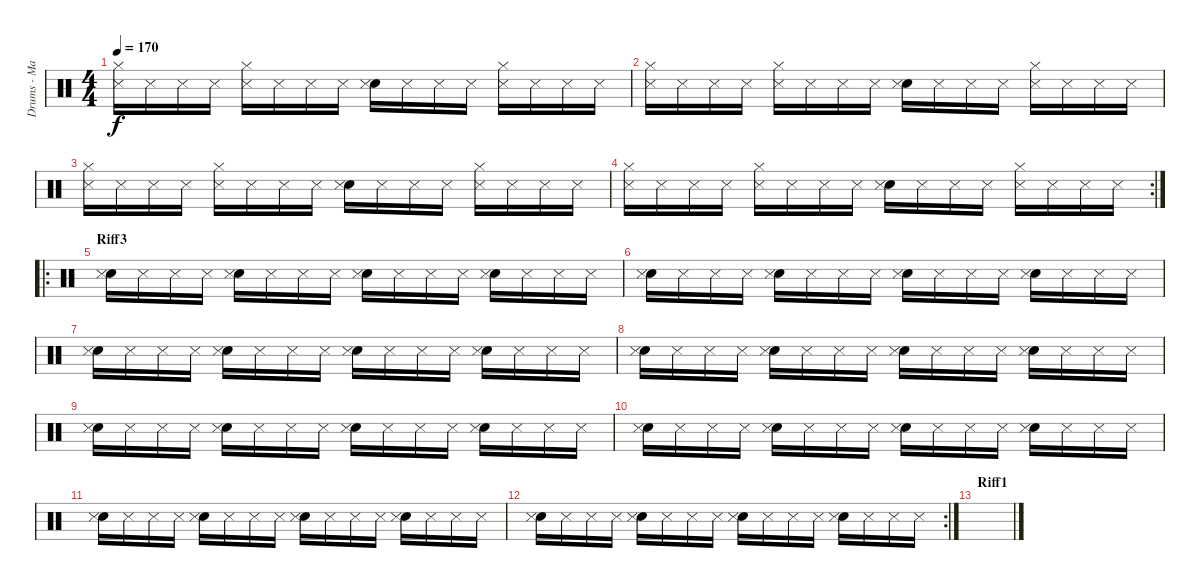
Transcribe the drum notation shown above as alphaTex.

\track ("Drums - Mattias Grahn" "Drums - Ma") {instrument percussion}
\staff {score}
\articulation defaults
\ts (4 4)
\tempo 170
\clef neutral
\ks c
("Hi-Hat (closed)" "Snare (side stick) 3").16{dy f} "Snare (side stick) 3".16 "Snare (side stick) 3".16 "Snare (side stick) 3".16 ("Hi-Hat (closed)" "Snare (side stick) 3").16 "Snare (side stick) 3".16 "Snare (side stick) 3".16 "Snare (side stick) 3".16 ("Electric Snare (hit)" "Snare (side stick) 3").16 "Snare (side stick) 3".16 "Snare (side stick) 3".16 "Snare (side stick) 3".16 ("Hi-Hat (closed)" "Snare (side stick) 3").16 "Snare (side stick) 3".16 "Snare (side stick) 3".16 "Snare (side stick) 3".16 |
("Hi-Hat (closed)" "Snare (side stick) 3").16 "Snare (side stick) 3".16 "Snare (side stick) 3".16 "Snare (side stick) 3".16 ("Hi-Hat (closed)" "Snare (side stick) 3").16 "Snare (side stick) 3".16 "Snare (side stick) 3".16 "Snare (side stick) 3".16 ("Electric Snare (hit)" "Snare (side stick) 3").16 "Snare (side stick) 3".16 "Snare (side stick) 3".16 "Snare (side stick) 3".16 ("Hi-Hat (closed)" "Snare (side stick) 3").16 "Snare (side stick) 3".16 "Snare (side stick) 3".16 "Snare (side stick) 3".16 |
("Hi-Hat (closed)" "Snare (side stick) 3").16 "Snare (side stick) 3".16 "Snare (side stick) 3".16 "Snare (side stick) 3".16 ("Hi-Hat (closed)" "Snare (side stick) 3").16 "Snare (side stick) 3".16 "Snare (side stick) 3".16 "Snare (side stick) 3".16 ("Electric Snare (hit)" "Snare (side stick) 3").16 "Snare (side stick) 3".16 "Snare (side stick) 3".16 "Snare (side stick) 3".16 ("Hi-Hat (closed)" "Snare (side stick) 3").16 "Snare (side stick) 3".16 "Snare (side stick) 3".16 "Snare (side stick) 3".16 |
\rc 2
("Hi-Hat (closed)" "Snare (side stick) 3").16 "Snare (side stick) 3".16 "Snare (side stick) 3".16 "Snare (side stick) 3".16 ("Hi-Hat (closed)" "Snare (side stick) 3").16 "Snare (side stick) 3".16 "Snare (side stick) 3".16 "Snare (side stick) 3".16 ("Electric Snare (hit)" "Snare (side stick) 3").16 "Snare (side stick) 3".16 "Snare (side stick) 3".16 "Snare (side stick) 3".16 ("Hi-Hat (closed)" "Snare (side stick) 3").16 "Snare (side stick) 3".16 "Snare (side stick) 3".16 "Snare (side stick) 3".16 |
\ro
\section ("" "Riff3")
("Snare (hit) 2" "Snare (side stick) 3").16 "Snare (side stick) 3".16 "Snare (side stick) 3".16 "Snare (side stick) 3".16 ("Snare (hit) 2" "Snare (side stick) 3").16 "Snare (side stick) 3".16 "Snare (side stick) 3".16 "Snare (side stick) 3".16 ("Snare (hit) 2" "Snare (side stick) 3").16 "Snare (side stick) 3".16 "Snare (side stick) 3".16 "Snare (side stick) 3".16 ("Snare (hit) 2" "Snare (side stick) 3").16 "Snare (side stick) 3".16 "Snare (side stick) 3".16 "Snare (side stick) 3".16 |
("Snare (hit) 2" "Snare (side stick) 3").16 "Snare (side stick) 3".16 "Snare (side stick) 3".16 "Snare (side stick) 3".16 ("Snare (hit) 2" "Snare (side stick) 3").16 "Snare (side stick) 3".16 "Snare (side stick) 3".16 "Snare (side stick) 3".16 ("Snare (hit) 2" "Snare (side stick) 3").16 "Snare (side stick) 3".16 "Snare (side stick) 3".16 "Snare (side stick) 3".16 ("Snare (hit) 2" "Snare (side stick) 3").16 "Snare (side stick) 3".16 "Snare (side stick) 3".16 "Snare (side stick) 3".16 |
("Snare (hit) 2" "Snare (side stick) 3").16 "Snare (side stick) 3".16 "Snare (side stick) 3".16 "Snare (side stick) 3".16 ("Snare (hit) 2" "Snare (side stick) 3").16 "Snare (side stick) 3".16 "Snare (side stick) 3".16 "Snare (side stick) 3".16 ("Snare (hit) 2" "Snare (side stick) 3").16 "Snare (side stick) 3".16 "Snare (side stick) 3".16 "Snare (side stick) 3".16 ("Snare (hit) 2" "Snare (side stick) 3").16 "Snare (side stick) 3".16 "Snare (side stick) 3".16 "Snare (side stick) 3".16 |
("Snare (hit) 2" "Snare (side stick) 3").16 "Snare (side stick) 3".16 "Snare (side stick) 3".16 "Snare (side stick) 3".16 ("Snare (hit) 2" "Snare (side stick) 3").16 "Snare (side stick) 3".16 "Snare (side stick) 3".16 "Snare (side stick) 3".16 ("Snare (hit) 2" "Snare (side stick) 3").16 "Snare (side stick) 3".16 "Snare (side stick) 3".16 "Snare (side stick) 3".16 ("Snare (hit) 2" "Snare (side stick) 3").16 "Snare (side stick) 3".16 "Snare (side stick) 3".16 "Snare (side stick) 3".16 |
("Snare (hit) 2" "Snare (side stick) 3").16 "Snare (side stick) 3".16 "Snare (side stick) 3".16 "Snare (side stick) 3".16 ("Snare (hit) 2" "Snare (side stick) 3").16 "Snare (side stick) 3".16 "Snare (side stick) 3".16 "Snare (side stick) 3".16 ("Snare (hit) 2" "Snare (side stick) 3").16 "Snare (side stick) 3".16 "Snare (side stick) 3".16 "Snare (side stick) 3".16 ("Snare (hit) 2" "Snare (side stick) 3").16 "Snare (side stick) 3".16 "Snare (side stick) 3".16 "Snare (side stick) 3".16 |
("Snare (hit) 2" "Snare (side stick) 3").16 "Snare (side stick) 3".16 "Snare (side stick) 3".16 "Snare (side stick) 3".16 ("Snare (hit) 2" "Snare (side stick) 3").16 "Snare (side stick) 3".16 "Snare (side stick) 3".16 "Snare (side stick) 3".16 ("Snare (hit) 2" "Snare (side stick) 3").16 "Snare (side stick) 3".16 "Snare (side stick) 3".16 "Snare (side stick) 3".16 ("Snare (hit) 2" "Snare (side stick) 3").16 "Snare (side stick) 3".16 "Snare (side stick) 3".16 "Snare (side stick) 3".16 |
("Snare (hit) 2" "Snare (side stick) 3").16 "Snare (side stick) 3".16 "Snare (side stick) 3".16 "Snare (side stick) 3".16 ("Snare (hit) 2" "Snare (side stick) 3").16 "Snare (side stick) 3".16 "Snare (side stick) 3".16 "Snare (side stick) 3".16 ("Snare (hit) 2" "Snare (side stick) 3").16 "Snare (side stick) 3".16 "Snare (side stick) 3".16 "Snare (side stick) 3".16 ("Snare (hit) 2" "Snare (side stick) 3").16 "Snare (side stick) 3".16 "Snare (side stick) 3".16 "Snare (side stick) 3".16 |
\rc 2
("Snare (hit) 2" "Snare (side stick) 3").16 "Snare (side stick) 3".16 "Snare (side stick) 3".16 "Snare (side stick) 3".16 ("Snare (hit) 2" "Snare (side stick) 3").16 "Snare (side stick) 3".16 "Snare (side stick) 3".16 "Snare (side stick) 3".16 ("Snare (hit) 2" "Snare (side stick) 3").16 "Snare (side stick) 3".16 "Snare (side stick) 3".16 "Snare (side stick) 3".16 ("Snare (hit) 2" "Snare (side stick) 3").16 "Snare (side stick) 3".16 "Snare (side stick) 3".16 "Snare (side stick) 3".16 |
\section ("" "Riff1")
